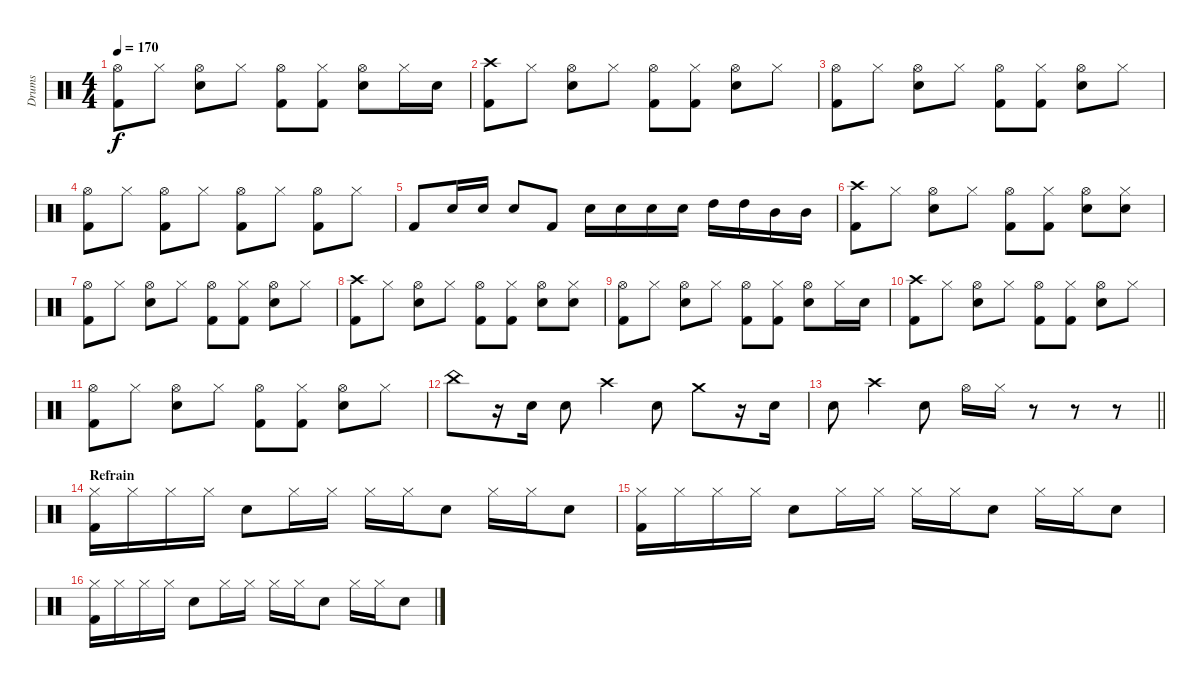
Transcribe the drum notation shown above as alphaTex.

\track ("Drums" "Drums") {instrument percussion}
\staff {score}
\articulation defaults
\ts (4 4)
\tempo 170
\clef neutral
\ks c
("Kick (hit) 2" "Hi-Hat (open)").8{dy f} "Hi-Hat (closed)".8 ("Electric Snare (hit)" "Hi-Hat (open)").8 "Hi-Hat (closed)".8 ("Kick (hit) 2" "Hi-Hat (open)").8 ("Kick (hit) 2" "Hi-Hat (closed)").8 ("Electric Snare (hit)" "Hi-Hat (open)").8 "Hi-Hat (closed)".16 "Electric Snare (hit)".16 |
("Kick (hit) 2" "Crash high (hit)").8 "Hi-Hat (closed)".8 ("Electric Snare (hit)" "Hi-Hat (open)").8 "Hi-Hat (closed)".8 ("Kick (hit) 2" "Hi-Hat (open)").8 ("Kick (hit) 2" "Hi-Hat (closed)").8 ("Electric Snare (hit)" "Hi-Hat (open)").8 "Hi-Hat (closed)".8 |
("Kick (hit) 2" "Hi-Hat (open)").8 "Hi-Hat (closed)".8 ("Electric Snare (hit)" "Hi-Hat (open)").8 "Hi-Hat (closed)".8 ("Kick (hit) 2" "Hi-Hat (open)").8 ("Kick (hit) 2" "Hi-Hat (closed)").8 ("Electric Snare (hit)" "Hi-Hat (open)").8 "Hi-Hat (closed)".8 |
("Hi-Hat (open)" "Kick (hit) 2").8 "Hi-Hat (closed)".8 ("Hi-Hat (open)" "Kick (hit) 2").8 "Hi-Hat (closed)".8 ("Hi-Hat (open)" "Kick (hit) 2").8 "Hi-Hat (closed)".8 ("Hi-Hat (open)" "Kick (hit) 2").8 "Hi-Hat (closed)".8 |
"Kick (hit) 2".8 "Electric Snare (hit)".16 "Electric Snare (hit)".16 "Electric Snare (hit)".8 "Kick (hit) 2".8 "Electric Snare (hit)".16 "Electric Snare (hit)".16 "Electric Snare (hit)".16 "Electric Snare (hit)".16 "High Tom (hit)".16 "High Tom (hit)".16 "Mid Tom (hit)".16 "Mid Tom (hit)".16 |
("Kick (hit) 2" "Crash high (hit)").8 "Hi-Hat (closed)".8 ("Electric Snare (hit)" "Hi-Hat (open)").8 "Hi-Hat (closed)".8 ("Kick (hit) 2" "Hi-Hat (open)").8 ("Kick (hit) 2" "Hi-Hat (closed)").8 ("Electric Snare (hit)" "Hi-Hat (open)").8 ("Electric Snare (hit)" "Hi-Hat (closed)").8 |
("Kick (hit) 2" "Hi-Hat (open)").8 "Hi-Hat (closed)".8 ("Electric Snare (hit)" "Hi-Hat (open)").8 "Hi-Hat (closed)".8 ("Kick (hit) 2" "Hi-Hat (open)").8 ("Kick (hit) 2" "Hi-Hat (closed)").8 ("Electric Snare (hit)" "Hi-Hat (open)").8 "Hi-Hat (closed)".8 |
("Kick (hit) 2" "Crash high (hit)").8 "Hi-Hat (closed)".8 ("Electric Snare (hit)" "Hi-Hat (open)").8 "Hi-Hat (closed)".8 ("Kick (hit) 2" "Hi-Hat (open)").8 ("Kick (hit) 2" "Hi-Hat (closed)").8 ("Electric Snare (hit)" "Hi-Hat (open)").8 ("Electric Snare (hit)" "Hi-Hat (closed)").8 |
("Kick (hit) 2" "Hi-Hat (open)").8 "Hi-Hat (closed)".8 ("Electric Snare (hit)" "Hi-Hat (open)").8 "Hi-Hat (closed)".8 ("Kick (hit) 2" "Hi-Hat (open)").8 ("Kick (hit) 2" "Hi-Hat (closed)").8 ("Electric Snare (hit)" "Hi-Hat (open)").8 "Hi-Hat (closed)".16 "Electric Snare (hit)".16 |
("Kick (hit) 2" "Crash high (hit)").8 "Hi-Hat (closed)".8 ("Electric Snare (hit)" "Hi-Hat (open)").8 "Hi-Hat (closed)".8 ("Kick (hit) 2" "Hi-Hat (open)").8 ("Kick (hit) 2" "Hi-Hat (closed)").8 ("Electric Snare (hit)" "Hi-Hat (open)").8 "Hi-Hat (closed)".8 |
("Kick (hit) 2" "Hi-Hat (open)").8 "Hi-Hat (closed)".8 ("Electric Snare (hit)" "Hi-Hat (open)").8 "Hi-Hat (closed)".8 ("Kick (hit) 2" "Hi-Hat (open)").8 ("Kick (hit) 2" "Hi-Hat (closed)").8 ("Electric Snare (hit)" "Hi-Hat (open)").8 "Hi-Hat (closed)".8 |
"China (hit)".8 r.16 "Electric Snare (hit)".16 "Electric Snare (hit)".8 "Crash high (hit)".4 "Electric Snare (hit)".8 "Crash medium (hit)".8 r.16 "Electric Snare (hit)".16 |
\barLineRight lightlight "Electric Snare (hit)".8 "Crash high (hit)".4 "Electric Snare (hit)".8 "Hi-Hat (open)".16 "Hi-Hat (closed)".16
r.8 r.8 r.8 |
\section ("" "Refrain")
("Hi-Hat (closed)" "Kick (hit) 2").16{volume 6} "Hi-Hat (closed)".16 "Hi-Hat (closed)".16 "Hi-Hat (closed)".16 "Electric Snare (hit)".8 "Hi-Hat (closed)".16 "Hi-Hat (closed)".16 "Hi-Hat (closed)".16 "Hi-Hat (closed)".16 "Electric Snare (hit)".8 "Hi-Hat (closed)".16 "Hi-Hat (closed)".16 "Electric Snare (hit)".8 |
("Hi-Hat (closed)" "Kick (hit) 2").16 "Hi-Hat (closed)".16 "Hi-Hat (closed)".16 "Hi-Hat (closed)".16 "Electric Snare (hit)".8 "Hi-Hat (closed)".16 "Hi-Hat (closed)".16 "Hi-Hat (closed)".16 "Hi-Hat (closed)".16 "Electric Snare (hit)".8 "Hi-Hat (closed)".16 "Hi-Hat (closed)".16 "Electric Snare (hit)".8 |
("Hi-Hat (closed)" "Kick (hit) 2").16 "Hi-Hat (closed)".16 "Hi-Hat (closed)".16 "Hi-Hat (closed)".16 "Electric Snare (hit)".8 "Hi-Hat (closed)".16 "Hi-Hat (closed)".16 "Hi-Hat (closed)".16 "Hi-Hat (closed)".16 "Electric Snare (hit)".8 "Hi-Hat (closed)".16 "Hi-Hat (closed)".16 "Electric Snare (hit)".8
